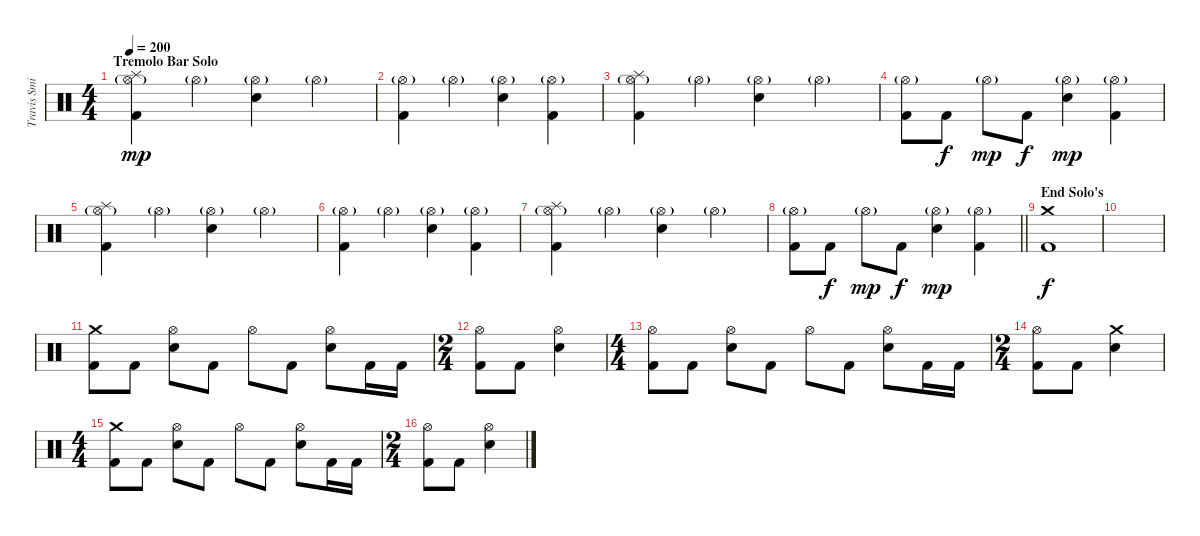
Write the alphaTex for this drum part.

\track ("Travis Smith" "Travis Smi") {instrument percussion}
\staff {score}
\articulation defaults
\ts (4 4)
\section ("" "Tremolo Bar Solo")
\tempo 200
\clef neutral
\ks c
("Hi-Hat (open)"{g} "Splash (hit)" "Kick (hit) 2").4{dy mp} "Hi-Hat (open)"{g}.4 ("Hi-Hat (open)"{g} "Electric Snare (hit)").4 "Hi-Hat (open)"{g}.4 |
("Hi-Hat (open)"{g} "Kick (hit) 2").4 "Hi-Hat (open)"{g}.4 ("Hi-Hat (open)"{g} "Electric Snare (hit)").4 ("Hi-Hat (open)"{g} "Kick (hit) 2").4 |
("Hi-Hat (open)"{g} "Splash (hit)" "Kick (hit) 2").4 "Hi-Hat (open)"{g}.4 ("Hi-Hat (open)"{g} "Electric Snare (hit)").4 "Hi-Hat (open)"{g}.4 |
("Hi-Hat (open)"{g} "Kick (hit) 2").8 "Kick (hit) 2".8{dy f} "Hi-Hat (open)"{g}.8{dy mp} "Kick (hit) 2".8{dy f} ("Hi-Hat (open)"{g} "Electric Snare (hit)").4{dy mp} ("Hi-Hat (open)"{g} "Kick (hit) 2").4 |
("Hi-Hat (open)"{g} "Splash (hit)" "Kick (hit) 2").4 "Hi-Hat (open)"{g}.4 ("Hi-Hat (open)"{g} "Electric Snare (hit)").4 "Hi-Hat (open)"{g}.4 |
("Hi-Hat (open)"{g} "Kick (hit) 2").4 "Hi-Hat (open)"{g}.4 ("Hi-Hat (open)"{g} "Electric Snare (hit)").4 ("Hi-Hat (open)"{g} "Kick (hit) 2").4 |
("Hi-Hat (open)"{g} "Splash (hit)" "Kick (hit) 2").4 "Hi-Hat (open)"{g}.4 ("Hi-Hat (open)"{g} "Electric Snare (hit)").4 "Hi-Hat (open)"{g}.4 |
\barLineRight lightlight
("Hi-Hat (open)"{g} "Kick (hit) 2").8 "Kick (hit) 2".8{dy f} "Hi-Hat (open)"{g}.8{dy mp} "Kick (hit) 2".8{dy f} ("Hi-Hat (open)"{g} "Electric Snare (hit)").4{dy mp} ("Hi-Hat (open)"{g} "Kick (hit) 2").4 |
\section ("" "End Solo's")
("Crash medium (hit)" "Kick (hit) 2").1{dy f} |
|
("Crash medium (hit)" "Kick (hit) 2").8{volume 16} "Kick (hit) 2".8 ("Hi-Hat (open)" "Electric Snare (hit)").8 "Kick (hit) 2".8 "Hi-Hat (open)".8 "Kick (hit) 2".8 ("Hi-Hat (open)" "Electric Snare (hit)").8 "Kick (hit) 2".16 "Kick (hit) 2".16 |
\ts (2 4)
("Hi-Hat (open)" "Kick (hit) 2").8 "Kick (hit) 2".8 ("Hi-Hat (open)" "Electric Snare (hit)").4 |
\ts (4 4)
("Hi-Hat (open)" "Kick (hit) 2").8 "Kick (hit) 2".8 ("Hi-Hat (open)" "Electric Snare (hit)").8 "Kick (hit) 2".8 "Hi-Hat (open)".8 "Kick (hit) 2".8 ("Hi-Hat (open)" "Electric Snare (hit)").8 "Kick (hit) 2".16 "Kick (hit) 2".16 |
\ts (2 4)
("Hi-Hat (open)" "Kick (hit) 2").8 "Kick (hit) 2".8 ("Crash medium (hit)" "Electric Snare (hit)").4 |
\ts (4 4)
("Crash medium (hit)" "Kick (hit) 2").8{volume 16} "Kick (hit) 2".8 ("Hi-Hat (open)" "Electric Snare (hit)").8 "Kick (hit) 2".8 "Hi-Hat (open)".8 "Kick (hit) 2".8 ("Hi-Hat (open)" "Electric Snare (hit)").8 "Kick (hit) 2".16 "Kick (hit) 2".16 |
\ts (2 4)
("Hi-Hat (open)" "Kick (hit) 2").8 "Kick (hit) 2".8 ("Hi-Hat (open)" "Electric Snare (hit)").4
